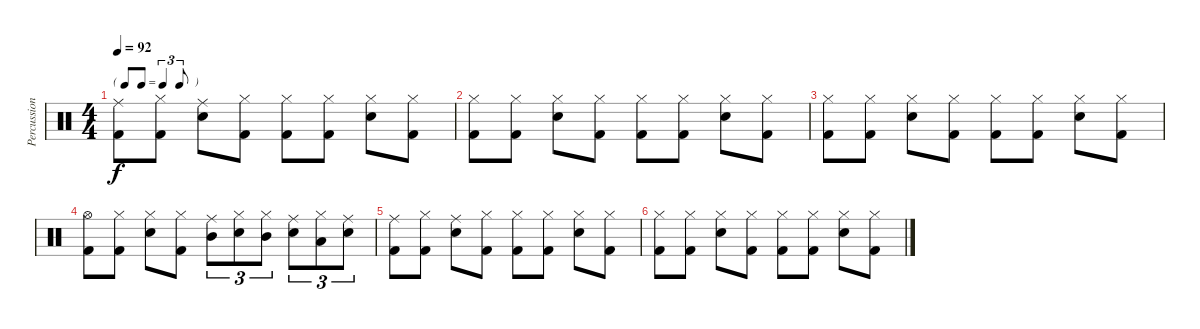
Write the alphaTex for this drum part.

\track ("Percussion" "Percussion") {instrument percussion}
\staff {score}
\articulation defaults
\ts (4 4)
\tf triplet8th
\tempo 92
\clef neutral
\ks c
("Ride (middle)" "Kick (hit) 2").8{dy f} ("Hi-Hat (closed)" "Kick (hit) 2").8 ("Ride (middle)" "Electric Snare (hit)").8 ("Hi-Hat (closed)" "Kick (hit) 2").8 ("Hi-Hat (closed)" "Kick (hit) 2").8 ("Hi-Hat (closed)" "Kick (hit) 2").8 ("Hi-Hat (closed)" "Electric Snare (hit)").8 ("Hi-Hat (closed)" "Kick (hit) 2").8 |
("Hi-Hat (closed)" "Kick (hit) 2").8 ("Hi-Hat (closed)" "Kick (hit) 2").8 ("Hi-Hat (closed)" "Electric Snare (hit)").8 ("Hi-Hat (closed)" "Kick (hit) 2").8 ("Hi-Hat (closed)" "Kick (hit) 2").8 ("Hi-Hat (closed)" "Kick (hit) 2").8 ("Hi-Hat (closed)" "Electric Snare (hit)").8 ("Hi-Hat (closed)" "Kick (hit) 2").8 |
("Hi-Hat (closed)" "Kick (hit) 2").8 ("Hi-Hat (closed)" "Kick (hit) 2").8 ("Hi-Hat (closed)" "Electric Snare (hit)").8 ("Hi-Hat (closed)" "Kick (hit) 2").8 ("Hi-Hat (closed)" "Kick (hit) 2").8 ("Hi-Hat (closed)" "Kick (hit) 2").8 ("Hi-Hat (closed)" "Electric Snare (hit)").8 ("Hi-Hat (closed)" "Kick (hit) 2").8 |
("Hi-Hat (open)" "Kick (hit) 2").8 ("Hi-Hat (closed)" "Kick (hit) 2").8 ("Hi-Hat (closed)" "Electric Snare (hit)").8 ("Hi-Hat (closed)" "Kick (hit) 2").8 ("Ride (middle)" "Mid Tom (hit)").8{tu (3 2)} ("Hi-Hat (closed)" "Electric Snare (hit)").8{tu (3 2)} ("Hi-Hat (closed)" "Mid Tom (hit)").8{tu (3 2)} ("Ride (middle)" "Electric Snare (hit)").8{tu (3 2)} ("Hi-Hat (closed)" "Low Tom (hit)").8{tu (3 2)} ("Ride (middle)" "Electric Snare (hit)").8{tu (3 2)} |
("Ride (middle)" "Kick (hit) 2").8 ("Hi-Hat (closed)" "Kick (hit) 2").8 ("Ride (middle)" "Electric Snare (hit)").8 ("Hi-Hat (closed)" "Kick (hit) 2").8 ("Hi-Hat (closed)" "Kick (hit) 2").8 ("Hi-Hat (closed)" "Kick (hit) 2").8 ("Hi-Hat (closed)" "Electric Snare (hit)").8 ("Hi-Hat (closed)" "Kick (hit) 2").8 |
("Hi-Hat (closed)" "Kick (hit) 2").8 ("Hi-Hat (closed)" "Kick (hit) 2").8 ("Hi-Hat (closed)" "Electric Snare (hit)").8 ("Hi-Hat (closed)" "Kick (hit) 2").8 ("Hi-Hat (closed)" "Kick (hit) 2").8 ("Hi-Hat (closed)" "Kick (hit) 2").8 ("Hi-Hat (closed)" "Electric Snare (hit)").8 ("Hi-Hat (closed)" "Kick (hit) 2").8
